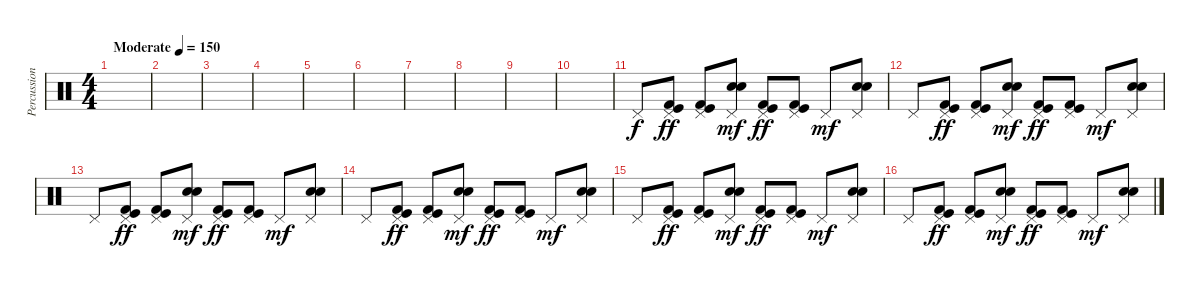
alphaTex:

\track ("Percussions" "Percussion") {instrument percussion}
\staff {score}
\articulation defaults
\ts (4 4)
\tempo (150 "Moderate")
\clef neutral
\ks c
|
|
|
|
|
|
|
|
|
|
"Pedal Hi-Hat (hit)".8 ("Pedal Hi-Hat (hit)" "Kick (hit)" "Kick (hit) 2").8{dy ff} ("Pedal Hi-Hat (hit)" "Kick (hit)" "Kick (hit) 2").8 ("Pedal Hi-Hat (hit)" "Electric Snare (hit)" "Snare (hit) 2").8{dy mf} ("Pedal Hi-Hat (hit)" "Kick (hit)" "Kick (hit) 2").8{dy ff} ("Pedal Hi-Hat (hit)" "Kick (hit)" "Kick (hit) 2").8 "Pedal Hi-Hat (hit)".8{dy mf} ("Pedal Hi-Hat (hit)" "Electric Snare (hit)" "Snare (hit) 2").8 |
"Pedal Hi-Hat (hit)".8 ("Pedal Hi-Hat (hit)" "Kick (hit)" "Kick (hit) 2").8{dy ff} ("Pedal Hi-Hat (hit)" "Kick (hit)" "Kick (hit) 2").8 ("Pedal Hi-Hat (hit)" "Electric Snare (hit)" "Snare (hit) 2").8{dy mf} ("Pedal Hi-Hat (hit)" "Kick (hit)" "Kick (hit) 2").8{dy ff} ("Pedal Hi-Hat (hit)" "Kick (hit)" "Kick (hit) 2").8 "Pedal Hi-Hat (hit)".8{dy mf} ("Pedal Hi-Hat (hit)" "Electric Snare (hit)" "Snare (hit) 2").8 |
"Pedal Hi-Hat (hit)".8 ("Pedal Hi-Hat (hit)" "Kick (hit)" "Kick (hit) 2").8{dy ff} ("Pedal Hi-Hat (hit)" "Kick (hit)" "Kick (hit) 2").8 ("Pedal Hi-Hat (hit)" "Electric Snare (hit)" "Snare (hit) 2").8{dy mf} ("Pedal Hi-Hat (hit)" "Kick (hit)" "Kick (hit) 2").8{dy ff} ("Pedal Hi-Hat (hit)" "Kick (hit)" "Kick (hit) 2").8 "Pedal Hi-Hat (hit)".8{dy mf} ("Pedal Hi-Hat (hit)" "Electric Snare (hit)" "Snare (hit) 2").8 |
"Pedal Hi-Hat (hit)".8 ("Pedal Hi-Hat (hit)" "Kick (hit)" "Kick (hit) 2").8{dy ff} ("Pedal Hi-Hat (hit)" "Kick (hit)" "Kick (hit) 2").8 ("Pedal Hi-Hat (hit)" "Electric Snare (hit)" "Snare (hit) 2").8{dy mf} ("Pedal Hi-Hat (hit)" "Kick (hit)" "Kick (hit) 2").8{dy ff} ("Pedal Hi-Hat (hit)" "Kick (hit)" "Kick (hit) 2").8 "Pedal Hi-Hat (hit)".8{dy mf} ("Pedal Hi-Hat (hit)" "Electric Snare (hit)" "Snare (hit) 2").8 |
"Pedal Hi-Hat (hit)".8 ("Pedal Hi-Hat (hit)" "Kick (hit)" "Kick (hit) 2").8{dy ff} ("Pedal Hi-Hat (hit)" "Kick (hit)" "Kick (hit) 2").8 ("Pedal Hi-Hat (hit)" "Electric Snare (hit)" "Snare (hit) 2").8{dy mf} ("Pedal Hi-Hat (hit)" "Kick (hit)" "Kick (hit) 2").8{dy ff} ("Pedal Hi-Hat (hit)" "Kick (hit)" "Kick (hit) 2").8 "Pedal Hi-Hat (hit)".8{dy mf} ("Pedal Hi-Hat (hit)" "Electric Snare (hit)" "Snare (hit) 2").8 |
"Pedal Hi-Hat (hit)".8 ("Pedal Hi-Hat (hit)" "Kick (hit)" "Kick (hit) 2").8{dy ff} ("Pedal Hi-Hat (hit)" "Kick (hit)" "Kick (hit) 2").8 ("Pedal Hi-Hat (hit)" "Electric Snare (hit)" "Snare (hit) 2").8{dy mf} ("Pedal Hi-Hat (hit)" "Kick (hit)" "Kick (hit) 2").8{dy ff} ("Pedal Hi-Hat (hit)" "Kick (hit)" "Kick (hit) 2").8 "Pedal Hi-Hat (hit)".8{dy mf} ("Pedal Hi-Hat (hit)" "Electric Snare (hit)" "Snare (hit) 2").8
